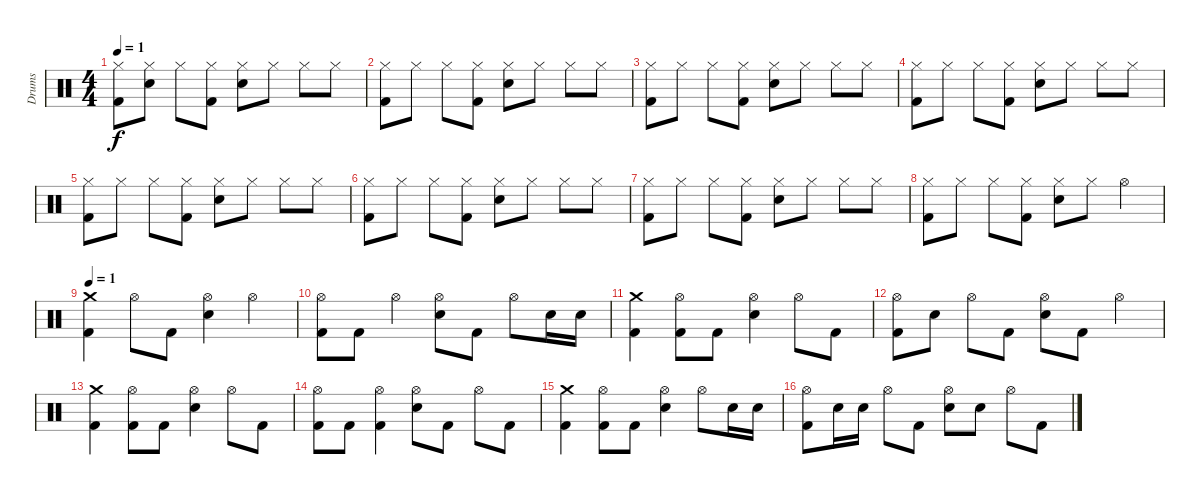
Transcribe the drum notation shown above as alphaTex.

\track ("Drums" "Drums") {instrument percussion}
\staff {score}
\articulation defaults
\ts (4 4)
\tempo 1
\clef neutral
\ks c
("Kick (hit) 2" "Hi-Hat (closed)").8{dy f} ("Hi-Hat (closed)" "Snare (hit) 2").8 "Hi-Hat (closed)".8 ("Hi-Hat (closed)" "Kick (hit) 2").8 ("Hi-Hat (closed)" "Snare (hit) 2").8 "Hi-Hat (closed)".8 "Hi-Hat (closed)".8 "Hi-Hat (closed)".8 |
("Hi-Hat (closed)" "Kick (hit) 2").8 "Hi-Hat (closed)".8 "Hi-Hat (closed)".8 ("Hi-Hat (closed)" "Kick (hit) 2").8 ("Hi-Hat (closed)" "Snare (hit) 2").8 "Hi-Hat (closed)".8 "Hi-Hat (closed)".8 "Hi-Hat (closed)".8 |
("Hi-Hat (closed)" "Kick (hit) 2").8 "Hi-Hat (closed)".8 "Hi-Hat (closed)".8 ("Hi-Hat (closed)" "Kick (hit) 2").8 ("Hi-Hat (closed)" "Snare (hit) 2").8 "Hi-Hat (closed)".8 "Hi-Hat (closed)".8 "Hi-Hat (closed)".8 |
("Hi-Hat (closed)" "Kick (hit) 2").8 "Hi-Hat (closed)".8 "Hi-Hat (closed)".8 ("Hi-Hat (closed)" "Kick (hit) 2").8 ("Hi-Hat (closed)" "Snare (hit) 2").8 "Hi-Hat (closed)".8 "Hi-Hat (closed)".8 "Hi-Hat (closed)".8 |
("Hi-Hat (closed)" "Kick (hit) 2").8 "Hi-Hat (closed)".8 "Hi-Hat (closed)".8 ("Hi-Hat (closed)" "Kick (hit) 2").8 ("Hi-Hat (closed)" "Snare (hit) 2").8 "Hi-Hat (closed)".8 "Hi-Hat (closed)".8 "Hi-Hat (closed)".8 |
("Hi-Hat (closed)" "Kick (hit) 2").8 "Hi-Hat (closed)".8 "Hi-Hat (closed)".8 ("Hi-Hat (closed)" "Kick (hit) 2").8 ("Hi-Hat (closed)" "Snare (hit) 2").8 "Hi-Hat (closed)".8 "Hi-Hat (closed)".8 "Hi-Hat (closed)".8 |
("Hi-Hat (closed)" "Kick (hit) 2").8 "Hi-Hat (closed)".8 "Hi-Hat (closed)".8 ("Hi-Hat (closed)" "Kick (hit) 2").8 ("Hi-Hat (closed)" "Snare (hit) 2").8 "Hi-Hat (closed)".8 "Hi-Hat (closed)".8 "Hi-Hat (closed)".8 |
("Hi-Hat (closed)" "Kick (hit) 2").8 "Hi-Hat (closed)".8 "Hi-Hat (closed)".8 ("Hi-Hat (closed)" "Kick (hit) 2").8 ("Hi-Hat (closed)" "Snare (hit) 2").8 "Hi-Hat (closed)".8 "Hi-Hat (open)".4 |
\tempo 1
("Kick (hit) 2" "Crash medium (hit)").4 "Hi-Hat (open)".8 "Kick (hit) 2".8 ("Snare (hit) 2" "Hi-Hat (open)").4 "Hi-Hat (open)".4 |
("Kick (hit) 2" "Hi-Hat (open)").8 "Kick (hit) 2".8 "Hi-Hat (open)".4 ("Snare (hit) 2" "Hi-Hat (open)").8 "Kick (hit) 2".8 "Hi-Hat (open)".8 "Snare (hit) 2".16 "Snare (hit) 2".16 |
("Kick (hit) 2" "Crash medium (hit)").4 ("Hi-Hat (open)" "Kick (hit) 2").8 "Kick (hit) 2".8 ("Snare (hit) 2" "Hi-Hat (open)").4 "Hi-Hat (open)".8 "Kick (hit) 2".8 |
("Hi-Hat (open)" "Kick (hit) 2").8 "Snare (hit) 2".8 "Hi-Hat (open)".8 "Kick (hit) 2".8 ("Snare (hit) 2" "Hi-Hat (open)").8 "Kick (hit) 2".8 "Hi-Hat (open)".4 |
("Kick (hit) 2" "Crash medium (hit)").4 ("Hi-Hat (open)" "Kick (hit) 2").8 "Kick (hit) 2".8 ("Snare (hit) 2" "Hi-Hat (open)").4 "Hi-Hat (open)".8 "Kick (hit) 2".8 |
("Kick (hit) 2" "Hi-Hat (open)").8 "Kick (hit) 2".8 ("Hi-Hat (open)" "Kick (hit) 2").4 ("Snare (hit) 2" "Hi-Hat (open)").8 "Kick (hit) 2".8 "Hi-Hat (open)".8 "Kick (hit) 2".8 |
("Kick (hit) 2" "Crash medium (hit)").4 ("Hi-Hat (open)" "Kick (hit) 2").8 "Kick (hit) 2".8 ("Snare (hit) 2" "Hi-Hat (open)").4 "Hi-Hat (open)".8 "Snare (hit) 2".16 "Snare (hit) 2".16 |
("Hi-Hat (open)" "Kick (hit) 2").8 "Snare (hit) 2".16 "Snare (hit) 2".16 "Hi-Hat (open)".8 "Kick (hit) 2".8 ("Snare (hit) 2" "Hi-Hat (open)").8 "Snare (hit) 2".8 "Hi-Hat (open)".8 "Kick (hit) 2".8
